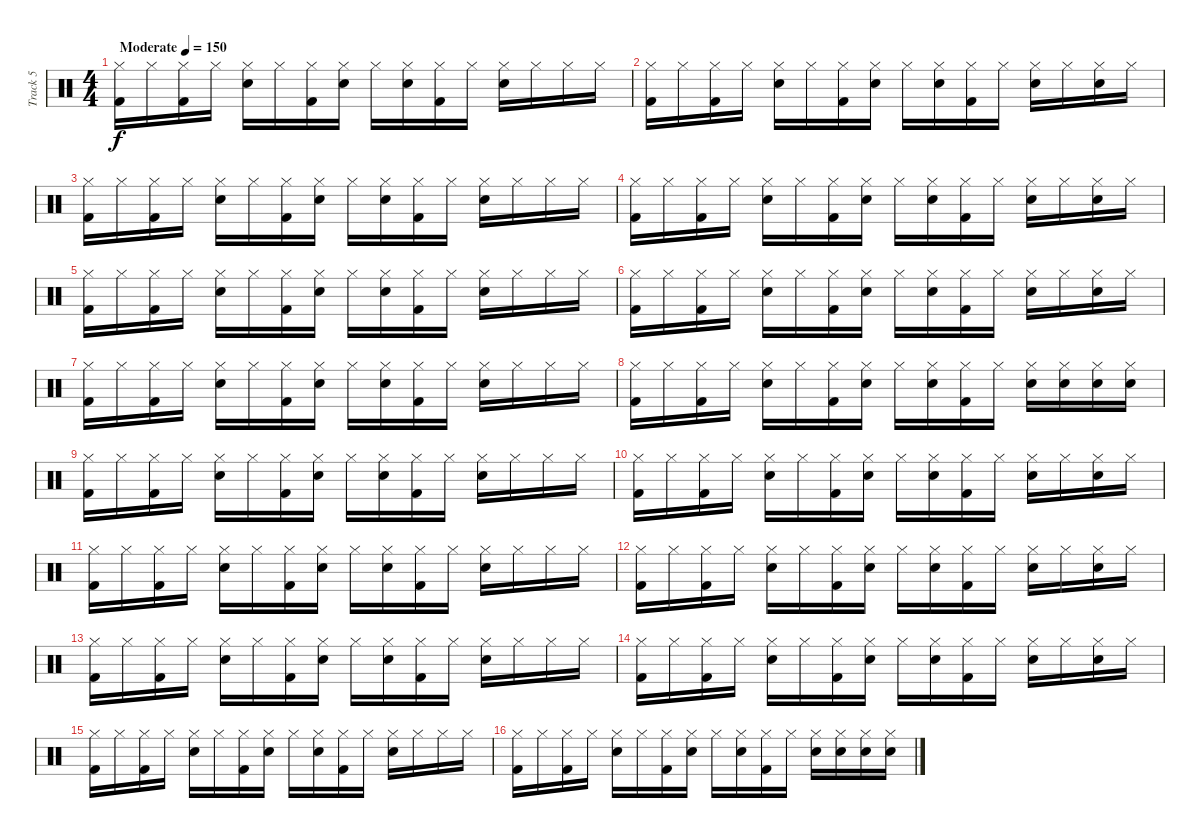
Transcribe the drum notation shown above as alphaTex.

\track ("Track 5" "Track 5") {instrument percussion}
\staff {score}
\articulation defaults
\ts (4 4)
\tempo (150 "Moderate")
\clef neutral
\ks c
("Hi-Hat (closed)" "Kick (hit) 2").16{dy f} "Hi-Hat (closed)".16 ("Hi-Hat (closed)" "Kick (hit) 2").16 "Hi-Hat (closed)".16 ("Hi-Hat (closed)" "Snare (hit) 2").16 "Hi-Hat (closed)".16 ("Hi-Hat (closed)" "Kick (hit) 2").16 ("Hi-Hat (closed)" "Snare (hit) 2").16 "Hi-Hat (closed)".16 ("Hi-Hat (closed)" "Snare (hit) 2").16 ("Hi-Hat (closed)" "Kick (hit) 2").16 "Hi-Hat (closed)".16 ("Hi-Hat (closed)" "Snare (hit) 2").16 "Hi-Hat (closed)".16 "Hi-Hat (closed)".16 "Hi-Hat (closed)".16 |
("Hi-Hat (closed)" "Kick (hit) 2").16 "Hi-Hat (closed)".16 ("Hi-Hat (closed)" "Kick (hit) 2").16 "Hi-Hat (closed)".16 ("Hi-Hat (closed)" "Snare (hit) 2").16 "Hi-Hat (closed)".16 ("Hi-Hat (closed)" "Kick (hit) 2").16 ("Hi-Hat (closed)" "Snare (hit) 2").16 "Hi-Hat (closed)".16 ("Hi-Hat (closed)" "Snare (hit) 2").16 ("Hi-Hat (closed)" "Kick (hit) 2").16 "Hi-Hat (closed)".16 ("Hi-Hat (closed)" "Snare (hit) 2").16 "Hi-Hat (closed)".16 ("Hi-Hat (closed)" "Snare (hit) 2").16 "Hi-Hat (closed)".16 |
("Hi-Hat (closed)" "Kick (hit) 2").16 "Hi-Hat (closed)".16 ("Hi-Hat (closed)" "Kick (hit) 2").16 "Hi-Hat (closed)".16 ("Hi-Hat (closed)" "Snare (hit) 2").16 "Hi-Hat (closed)".16 ("Hi-Hat (closed)" "Kick (hit) 2").16 ("Hi-Hat (closed)" "Snare (hit) 2").16 "Hi-Hat (closed)".16 ("Hi-Hat (closed)" "Snare (hit) 2").16 ("Hi-Hat (closed)" "Kick (hit) 2").16 "Hi-Hat (closed)".16 ("Hi-Hat (closed)" "Snare (hit) 2").16 "Hi-Hat (closed)".16 "Hi-Hat (closed)".16 "Hi-Hat (closed)".16 |
("Hi-Hat (closed)" "Kick (hit) 2").16 "Hi-Hat (closed)".16 ("Hi-Hat (closed)" "Kick (hit) 2").16 "Hi-Hat (closed)".16 ("Hi-Hat (closed)" "Snare (hit) 2").16 "Hi-Hat (closed)".16 ("Hi-Hat (closed)" "Kick (hit) 2").16 ("Hi-Hat (closed)" "Snare (hit) 2").16 "Hi-Hat (closed)".16 ("Hi-Hat (closed)" "Snare (hit) 2").16 ("Hi-Hat (closed)" "Kick (hit) 2").16 "Hi-Hat (closed)".16 ("Hi-Hat (closed)" "Snare (hit) 2").16 "Hi-Hat (closed)".16 ("Hi-Hat (closed)" "Snare (hit) 2").16 "Hi-Hat (closed)".16 |
("Hi-Hat (closed)" "Kick (hit) 2").16 "Hi-Hat (closed)".16 ("Hi-Hat (closed)" "Kick (hit) 2").16 "Hi-Hat (closed)".16 ("Hi-Hat (closed)" "Snare (hit) 2").16 "Hi-Hat (closed)".16 ("Hi-Hat (closed)" "Kick (hit) 2").16 ("Hi-Hat (closed)" "Snare (hit) 2").16 "Hi-Hat (closed)".16 ("Hi-Hat (closed)" "Snare (hit) 2").16 ("Hi-Hat (closed)" "Kick (hit) 2").16 "Hi-Hat (closed)".16 ("Hi-Hat (closed)" "Snare (hit) 2").16 "Hi-Hat (closed)".16 "Hi-Hat (closed)".16 "Hi-Hat (closed)".16 |
("Hi-Hat (closed)" "Kick (hit) 2").16 "Hi-Hat (closed)".16 ("Hi-Hat (closed)" "Kick (hit) 2").16 "Hi-Hat (closed)".16 ("Hi-Hat (closed)" "Snare (hit) 2").16 "Hi-Hat (closed)".16 ("Hi-Hat (closed)" "Kick (hit) 2").16 ("Hi-Hat (closed)" "Snare (hit) 2").16 "Hi-Hat (closed)".16 ("Hi-Hat (closed)" "Snare (hit) 2").16 ("Hi-Hat (closed)" "Kick (hit) 2").16 "Hi-Hat (closed)".16 ("Hi-Hat (closed)" "Snare (hit) 2").16 "Hi-Hat (closed)".16 ("Hi-Hat (closed)" "Snare (hit) 2").16 "Hi-Hat (closed)".16 |
("Hi-Hat (closed)" "Kick (hit) 2").16 "Hi-Hat (closed)".16 ("Hi-Hat (closed)" "Kick (hit) 2").16 "Hi-Hat (closed)".16 ("Hi-Hat (closed)" "Snare (hit) 2").16 "Hi-Hat (closed)".16 ("Hi-Hat (closed)" "Kick (hit) 2").16 ("Hi-Hat (closed)" "Snare (hit) 2").16 "Hi-Hat (closed)".16 ("Hi-Hat (closed)" "Snare (hit) 2").16 ("Hi-Hat (closed)" "Kick (hit) 2").16 "Hi-Hat (closed)".16 ("Hi-Hat (closed)" "Snare (hit) 2").16 "Hi-Hat (closed)".16 "Hi-Hat (closed)".16 "Hi-Hat (closed)".16 |
("Hi-Hat (closed)" "Kick (hit) 2").16 "Hi-Hat (closed)".16 ("Hi-Hat (closed)" "Kick (hit) 2").16 "Hi-Hat (closed)".16 ("Hi-Hat (closed)" "Snare (hit) 2").16 "Hi-Hat (closed)".16 ("Hi-Hat (closed)" "Kick (hit) 2").16 ("Hi-Hat (closed)" "Snare (hit) 2").16 "Hi-Hat (closed)".16 ("Hi-Hat (closed)" "Snare (hit) 2").16 ("Hi-Hat (closed)" "Kick (hit) 2").16 "Hi-Hat (closed)".16 ("Hi-Hat (closed)" "Snare (hit) 2").16 ("Hi-Hat (closed)" "Snare (hit) 2").16 ("Hi-Hat (closed)" "Snare (hit) 2").16 ("Hi-Hat (closed)" "Snare (hit) 2").16 |
("Hi-Hat (closed)" "Kick (hit) 2").16 "Hi-Hat (closed)".16 ("Hi-Hat (closed)" "Kick (hit) 2").16 "Hi-Hat (closed)".16 ("Hi-Hat (closed)" "Snare (hit) 2").16 "Hi-Hat (closed)".16 ("Hi-Hat (closed)" "Kick (hit) 2").16 ("Hi-Hat (closed)" "Snare (hit) 2").16 "Hi-Hat (closed)".16 ("Hi-Hat (closed)" "Snare (hit) 2").16 ("Hi-Hat (closed)" "Kick (hit) 2").16 "Hi-Hat (closed)".16 ("Hi-Hat (closed)" "Snare (hit) 2").16 "Hi-Hat (closed)".16 "Hi-Hat (closed)".16 "Hi-Hat (closed)".16 |
("Hi-Hat (closed)" "Kick (hit) 2").16 "Hi-Hat (closed)".16 ("Hi-Hat (closed)" "Kick (hit) 2").16 "Hi-Hat (closed)".16 ("Hi-Hat (closed)" "Snare (hit) 2").16 "Hi-Hat (closed)".16 ("Hi-Hat (closed)" "Kick (hit) 2").16 ("Hi-Hat (closed)" "Snare (hit) 2").16 "Hi-Hat (closed)".16 ("Hi-Hat (closed)" "Snare (hit) 2").16 ("Hi-Hat (closed)" "Kick (hit) 2").16 "Hi-Hat (closed)".16 ("Hi-Hat (closed)" "Snare (hit) 2").16 "Hi-Hat (closed)".16 ("Hi-Hat (closed)" "Snare (hit) 2").16 "Hi-Hat (closed)".16 |
("Hi-Hat (closed)" "Kick (hit) 2").16 "Hi-Hat (closed)".16 ("Hi-Hat (closed)" "Kick (hit) 2").16 "Hi-Hat (closed)".16 ("Hi-Hat (closed)" "Snare (hit) 2").16 "Hi-Hat (closed)".16 ("Hi-Hat (closed)" "Kick (hit) 2").16 ("Hi-Hat (closed)" "Snare (hit) 2").16 "Hi-Hat (closed)".16 ("Hi-Hat (closed)" "Snare (hit) 2").16 ("Hi-Hat (closed)" "Kick (hit) 2").16 "Hi-Hat (closed)".16 ("Hi-Hat (closed)" "Snare (hit) 2").16 "Hi-Hat (closed)".16 "Hi-Hat (closed)".16 "Hi-Hat (closed)".16 |
("Hi-Hat (closed)" "Kick (hit) 2").16 "Hi-Hat (closed)".16 ("Hi-Hat (closed)" "Kick (hit) 2").16 "Hi-Hat (closed)".16 ("Hi-Hat (closed)" "Snare (hit) 2").16 "Hi-Hat (closed)".16 ("Hi-Hat (closed)" "Kick (hit) 2").16 ("Hi-Hat (closed)" "Snare (hit) 2").16 "Hi-Hat (closed)".16 ("Hi-Hat (closed)" "Snare (hit) 2").16 ("Hi-Hat (closed)" "Kick (hit) 2").16 "Hi-Hat (closed)".16 ("Hi-Hat (closed)" "Snare (hit) 2").16 "Hi-Hat (closed)".16 ("Hi-Hat (closed)" "Snare (hit) 2").16 "Hi-Hat (closed)".16 |
("Hi-Hat (closed)" "Kick (hit) 2").16 "Hi-Hat (closed)".16 ("Hi-Hat (closed)" "Kick (hit) 2").16 "Hi-Hat (closed)".16 ("Hi-Hat (closed)" "Snare (hit) 2").16 "Hi-Hat (closed)".16 ("Hi-Hat (closed)" "Kick (hit) 2").16 ("Hi-Hat (closed)" "Snare (hit) 2").16 "Hi-Hat (closed)".16 ("Hi-Hat (closed)" "Snare (hit) 2").16 ("Hi-Hat (closed)" "Kick (hit) 2").16 "Hi-Hat (closed)".16 ("Hi-Hat (closed)" "Snare (hit) 2").16 "Hi-Hat (closed)".16 "Hi-Hat (closed)".16 "Hi-Hat (closed)".16 |
("Hi-Hat (closed)" "Kick (hit) 2").16 "Hi-Hat (closed)".16 ("Hi-Hat (closed)" "Kick (hit) 2").16 "Hi-Hat (closed)".16 ("Hi-Hat (closed)" "Snare (hit) 2").16 "Hi-Hat (closed)".16 ("Hi-Hat (closed)" "Kick (hit) 2").16 ("Hi-Hat (closed)" "Snare (hit) 2").16 "Hi-Hat (closed)".16 ("Hi-Hat (closed)" "Snare (hit) 2").16 ("Hi-Hat (closed)" "Kick (hit) 2").16 "Hi-Hat (closed)".16 ("Hi-Hat (closed)" "Snare (hit) 2").16 "Hi-Hat (closed)".16 ("Hi-Hat (closed)" "Snare (hit) 2").16 "Hi-Hat (closed)".16 |
("Hi-Hat (closed)" "Kick (hit) 2").16 "Hi-Hat (closed)".16 ("Hi-Hat (closed)" "Kick (hit) 2").16 "Hi-Hat (closed)".16 ("Hi-Hat (closed)" "Snare (hit) 2").16 "Hi-Hat (closed)".16 ("Hi-Hat (closed)" "Kick (hit) 2").16 ("Hi-Hat (closed)" "Snare (hit) 2").16 "Hi-Hat (closed)".16 ("Hi-Hat (closed)" "Snare (hit) 2").16 ("Hi-Hat (closed)" "Kick (hit) 2").16 "Hi-Hat (closed)".16 ("Hi-Hat (closed)" "Snare (hit) 2").16 "Hi-Hat (closed)".16 "Hi-Hat (closed)".16 "Hi-Hat (closed)".16 |
("Hi-Hat (closed)" "Kick (hit) 2").16 "Hi-Hat (closed)".16 ("Hi-Hat (closed)" "Kick (hit) 2").16 "Hi-Hat (closed)".16 ("Hi-Hat (closed)" "Snare (hit) 2").16 "Hi-Hat (closed)".16 ("Hi-Hat (closed)" "Kick (hit) 2").16 ("Hi-Hat (closed)" "Snare (hit) 2").16 "Hi-Hat (closed)".16 ("Hi-Hat (closed)" "Snare (hit) 2").16 ("Hi-Hat (closed)" "Kick (hit) 2").16 "Hi-Hat (closed)".16 ("Hi-Hat (closed)" "Snare (hit) 2").16 ("Hi-Hat (closed)" "Snare (hit) 2").16 ("Hi-Hat (closed)" "Snare (hit) 2").16 ("Hi-Hat (closed)" "Snare (hit) 2").16
